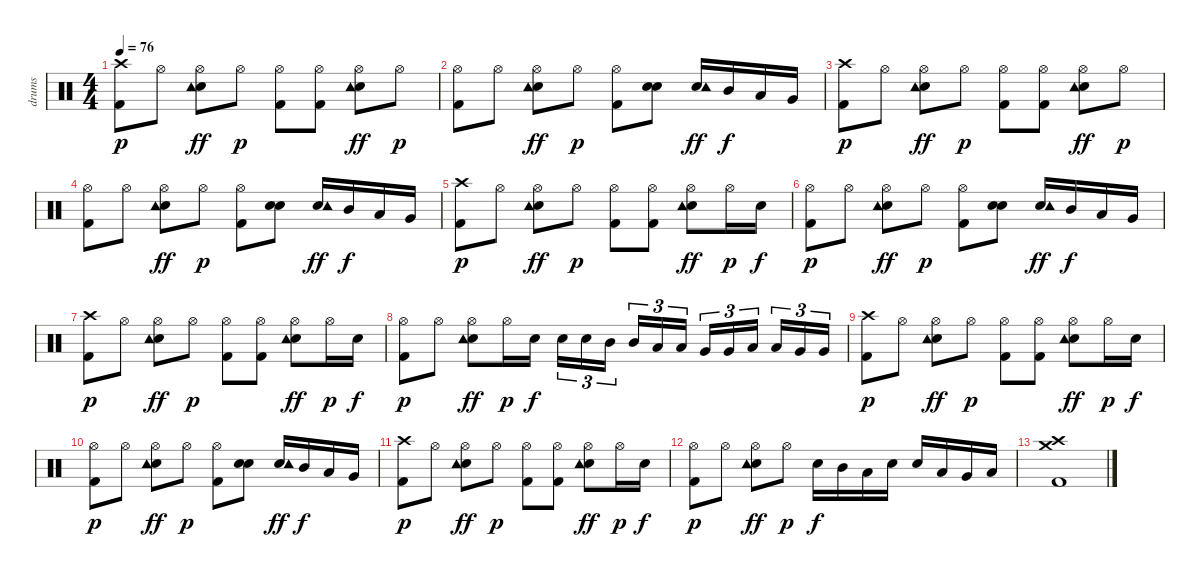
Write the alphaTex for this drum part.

\track ("drums" "drums") {instrument percussion}
\staff {score}
\articulation defaults
\ts (4 4)
\tempo 76
\clef neutral
\ks c
("Crash high (hit)" "Kick (hit) 2").8{dy p} "Hi-Hat (open)".8 ("Hi-Hat (open)" "Snare (hit) 2" "Tambourine (hit)").8{dy ff} "Hi-Hat (open)".8{dy p} ("Hi-Hat (open)" "Kick (hit) 2").8 ("Hi-Hat (open)" "Kick (hit) 2").8 ("Hi-Hat (open)" "Snare (hit) 2" "Tambourine (hit)").8{dy ff} "Hi-Hat (open)".8{dy p} |
("Hi-Hat (open)" "Kick (hit) 2").8 "Hi-Hat (open)".8 ("Hi-Hat (open)" "Snare (hit) 2" "Tambourine (hit)").8{dy ff} "Hi-Hat (open)".8{dy p} ("Hi-Hat (open)" "Kick (hit) 2").8 ("Snare (hit) 2" "Snare (hit) 2").8 ("Snare (hit) 2" "Tambourine (hit)").16{dy ff} "Mid Tom (hit)".16{dy f} "Low Tom (hit)".16 "Very Low Tom (hit)".16 |
("Crash high (hit)" "Kick (hit) 2").8{dy p} "Hi-Hat (open)".8 ("Hi-Hat (open)" "Snare (hit) 2" "Tambourine (hit)").8{dy ff} "Hi-Hat (open)".8{dy p} ("Hi-Hat (open)" "Kick (hit) 2").8 ("Hi-Hat (open)" "Kick (hit) 2").8 ("Hi-Hat (open)" "Snare (hit) 2" "Tambourine (hit)").8{dy ff} "Hi-Hat (open)".8{dy p} |
("Hi-Hat (open)" "Kick (hit) 2").8 "Hi-Hat (open)".8 ("Hi-Hat (open)" "Snare (hit) 2" "Tambourine (hit)").8{dy ff} "Hi-Hat (open)".8{dy p} ("Hi-Hat (open)" "Kick (hit) 2").8 ("Snare (hit) 2" "Snare (hit) 2").8 ("Snare (hit) 2" "Tambourine (hit)").16{dy ff} "Mid Tom (hit)".16{dy f} "Low Tom (hit)".16 "Very Low Tom (hit)".16 |
("Crash high (hit)" "Kick (hit) 2").8{dy p} "Hi-Hat (open)".8 ("Hi-Hat (open)" "Snare (hit) 2" "Tambourine (hit)").8{dy ff} "Hi-Hat (open)".8{dy p} ("Hi-Hat (open)" "Kick (hit) 2").8 ("Hi-Hat (open)" "Kick (hit) 2").8 ("Hi-Hat (open)" "Snare (hit) 2" "Tambourine (hit)").8{dy ff} "Hi-Hat (open)".16{dy p} "Snare (hit) 2".16{dy f} |
("Hi-Hat (open)" "Kick (hit) 2").8{dy p} "Hi-Hat (open)".8 ("Hi-Hat (open)" "Snare (hit) 2" "Tambourine (hit)").8{dy ff} "Hi-Hat (open)".8{dy p} ("Hi-Hat (open)" "Kick (hit) 2").8 ("Snare (hit) 2" "Snare (hit) 2").8 ("Snare (hit) 2" "Tambourine (hit)").16{dy ff} "Mid Tom (hit)".16{dy f} "Low Tom (hit)".16 "Very Low Tom (hit)".16 |
("Crash high (hit)" "Kick (hit) 2").8{dy p} "Hi-Hat (open)".8 ("Hi-Hat (open)" "Snare (hit) 2" "Tambourine (hit)").8{dy ff} "Hi-Hat (open)".8{dy p} ("Hi-Hat (open)" "Kick (hit) 2").8 ("Hi-Hat (open)" "Kick (hit) 2").8 ("Hi-Hat (open)" "Snare (hit) 2" "Tambourine (hit)").8{dy ff} "Hi-Hat (open)".16{dy p} "Snare (hit) 2".16{dy f} |
("Hi-Hat (open)" "Kick (hit) 2").8{dy p} "Hi-Hat (open)".8 ("Hi-Hat (open)" "Snare (hit) 2" "Tambourine (hit)").8{dy ff} "Hi-Hat (open)".16{dy p} "Snare (hit) 2".16{dy f} "Snare (hit) 2".16{tu (3 2)} "Snare (hit) 2".16{tu (3 2)} "Mid Tom (hit)".16{tu (3 2) beam splitsecondary} "Mid Tom (hit)".16{tu (3 2)} "Low Tom (hit)".16{tu (3 2)} "Low Tom (hit)".16{tu (3 2)} "Very Low Tom (hit)".16{tu (3 2)} "Very Low Tom (hit)".16{tu (3 2)} "Low Floor Tom (hit)".16{tu (3 2) beam splitsecondary} "Low Floor Tom (hit)".16{tu (3 2)} "Very Low Tom (hit)".16{tu (3 2)} "Very Low Tom (hit)".16{tu (3 2)} |
("Crash high (hit)" "Kick (hit) 2").8{dy p} "Hi-Hat (open)".8 ("Hi-Hat (open)" "Snare (hit) 2" "Tambourine (hit)").8{dy ff} "Hi-Hat (open)".8{dy p} ("Hi-Hat (open)" "Kick (hit) 2").8 ("Hi-Hat (open)" "Kick (hit) 2").8 ("Hi-Hat (open)" "Snare (hit) 2" "Tambourine (hit)").8{dy ff} "Hi-Hat (open)".16{dy p} "Snare (hit) 2".16{dy f} |
("Hi-Hat (open)" "Kick (hit) 2").8{dy p} "Hi-Hat (open)".8 ("Hi-Hat (open)" "Snare (hit) 2" "Tambourine (hit)").8{dy ff} "Hi-Hat (open)".8{dy p} ("Hi-Hat (open)" "Kick (hit) 2").8 ("Snare (hit) 2" "Snare (hit) 2").8 ("Snare (hit) 2" "Tambourine (hit)").16{dy ff} "Mid Tom (hit)".16{dy f} "Low Tom (hit)".16 "Very Low Tom (hit)".16 |
("Crash high (hit)" "Kick (hit) 2").8{dy p} "Hi-Hat (open)".8 ("Hi-Hat (open)" "Snare (hit) 2" "Tambourine (hit)").8{dy ff} "Hi-Hat (open)".8{dy p} ("Hi-Hat (open)" "Kick (hit) 2").8 ("Hi-Hat (open)" "Kick (hit) 2").8 ("Hi-Hat (open)" "Snare (hit) 2" "Tambourine (hit)").8{dy ff} "Hi-Hat (open)".16{dy p} "Snare (hit) 2".16{dy f} |
("Hi-Hat (open)" "Kick (hit) 2").8{dy p} "Hi-Hat (open)".8 ("Hi-Hat (open)" "Snare (hit) 2" "Tambourine (hit)").8{dy ff} "Hi-Hat (open)".8{dy p} "Snare (hit) 2".16{dy f} "Mid Tom (hit)".16 "Low Tom (hit)".16 "Snare (hit) 2".16 "Snare (hit) 2".16 "Low Tom (hit)".16 "Very Low Tom (hit)".16 "Low Floor Tom (hit)".16 |
("Crash medium (hit)" "Crash high (hit)" "Kick (hit) 2").1
